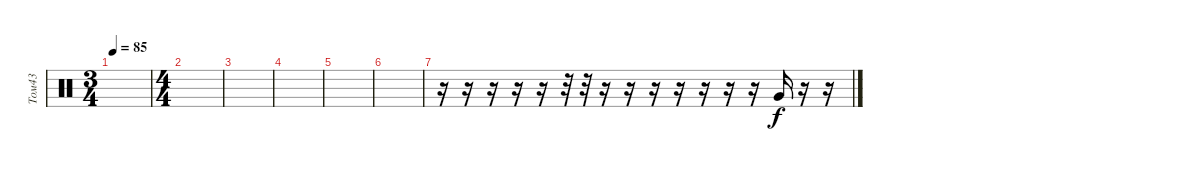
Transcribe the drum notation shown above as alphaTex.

\track ("Том43" "Том43") {instrument percussion}
\staff {score}
\articulation defaults
\ts (3 4)
\tempo 85
\clef neutral
\ks c
|
\ts (4 4)
|
|
|
|
|
r.16 r.16 r.16 r.16 r.16 r.32 r.32 r.16 r.16 r.16 r.16 r.16 r.16 r.16 "Very Low Tom (hit)".16 r.16 r.16
